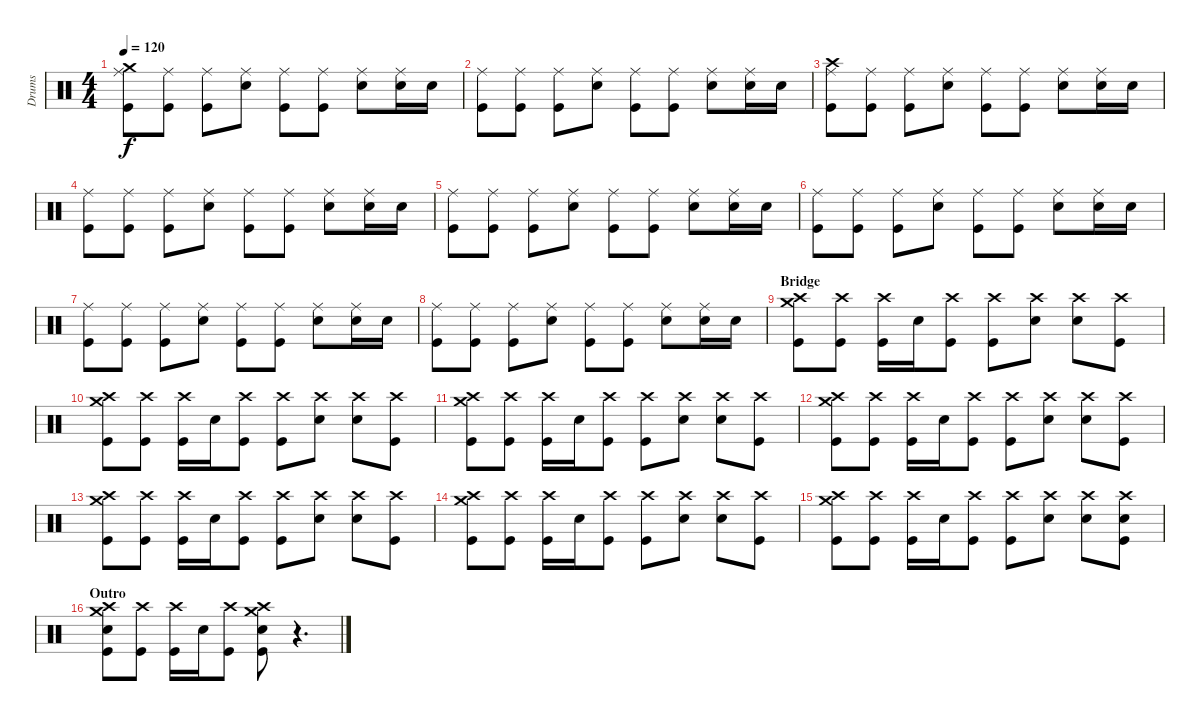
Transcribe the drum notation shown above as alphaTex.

\track ("Drums" "Drums") {instrument percussion}
\staff {score}
\articulation defaults
\ts (4 4)
\tempo 120
\clef neutral
\ks c
("Ride (middle)" "Crash medium (hit)" "Kick (hit)").8{dy f} ("Ride (middle)" "Kick (hit)").8 ("Ride (middle)" "Kick (hit)").8 ("Ride (middle)" "Electric Snare (hit)").8 ("Ride (middle)" "Kick (hit)").8 ("Ride (middle)" "Kick (hit)").8 ("Ride (middle)" "Electric Snare (hit)").8 ("Ride (middle)" "Electric Snare (hit)").16 "Electric Snare (hit)".16 |
("Ride (middle)" "Kick (hit)").8 ("Ride (middle)" "Kick (hit)").8 ("Ride (middle)" "Kick (hit)").8 ("Ride (middle)" "Electric Snare (hit)").8 ("Ride (middle)" "Kick (hit)").8 ("Ride (middle)" "Kick (hit)").8 ("Ride (middle)" "Electric Snare (hit)").8 ("Ride (middle)" "Electric Snare (hit)").16 "Electric Snare (hit)".16 |
("Ride (middle)" "Crash high (hit)" "Kick (hit)").8 ("Ride (middle)" "Kick (hit)").8 ("Ride (middle)" "Kick (hit)").8 ("Ride (middle)" "Electric Snare (hit)").8 ("Ride (middle)" "Kick (hit)").8 ("Ride (middle)" "Kick (hit)").8 ("Ride (middle)" "Electric Snare (hit)").8 ("Ride (middle)" "Electric Snare (hit)").16 "Electric Snare (hit)".16 |
("Ride (middle)" "Kick (hit)").8 ("Ride (middle)" "Kick (hit)").8 ("Ride (middle)" "Kick (hit)").8 ("Ride (middle)" "Electric Snare (hit)").8 ("Ride (middle)" "Kick (hit)").8 ("Ride (middle)" "Kick (hit)").8 ("Ride (middle)" "Electric Snare (hit)").8 ("Ride (middle)" "Electric Snare (hit)").16 "Electric Snare (hit)".16 |
("Ride (middle)" "Kick (hit)").8 ("Ride (middle)" "Kick (hit)").8 ("Ride (middle)" "Kick (hit)").8 ("Ride (middle)" "Electric Snare (hit)").8 ("Ride (middle)" "Kick (hit)").8 ("Ride (middle)" "Kick (hit)").8 ("Ride (middle)" "Electric Snare (hit)").8 ("Ride (middle)" "Electric Snare (hit)").16 "Electric Snare (hit)".16 |
("Ride (middle)" "Kick (hit)").8 ("Ride (middle)" "Kick (hit)").8 ("Ride (middle)" "Kick (hit)").8 ("Ride (middle)" "Electric Snare (hit)").8 ("Ride (middle)" "Kick (hit)").8 ("Ride (middle)" "Kick (hit)").8 ("Ride (middle)" "Electric Snare (hit)").8 ("Ride (middle)" "Electric Snare (hit)").16 "Electric Snare (hit)".16 |
("Ride (middle)" "Kick (hit)").8 ("Ride (middle)" "Kick (hit)").8 ("Ride (middle)" "Kick (hit)").8 ("Ride (middle)" "Electric Snare (hit)").8 ("Ride (middle)" "Kick (hit)").8 ("Ride (middle)" "Kick (hit)").8 ("Ride (middle)" "Electric Snare (hit)").8 ("Ride (middle)" "Electric Snare (hit)").16 "Electric Snare (hit)".16 |
("Ride (middle)" "Kick (hit)").8 ("Ride (middle)" "Kick (hit)").8 ("Ride (middle)" "Kick (hit)").8 ("Ride (middle)" "Electric Snare (hit)").8 ("Ride (middle)" "Kick (hit)").8 ("Ride (middle)" "Kick (hit)").8 ("Ride (middle)" "Electric Snare (hit)").8 ("Ride (middle)" "Electric Snare (hit)").16 "Electric Snare (hit)".16 |
\section ("" "Bridge")
("Crash high (hit)" "Crash medium (hit)" "Kick (hit)").8 ("Crash high (hit)" "Kick (hit)").8 ("Crash high (hit)" "Kick (hit)").16 "Electric Snare (hit)".16 ("Crash high (hit)" "Kick (hit)").8 ("Crash high (hit)" "Kick (hit)").8 ("Crash high (hit)" "Electric Snare (hit)").8 ("Crash high (hit)" "Electric Snare (hit)").8 ("Crash high (hit)" "Kick (hit)").8 |
("Crash high (hit)" "Crash medium (hit)" "Kick (hit)").8 ("Crash high (hit)" "Kick (hit)").8 ("Crash high (hit)" "Kick (hit)").16 "Electric Snare (hit)".16 ("Crash high (hit)" "Kick (hit)").8 ("Crash high (hit)" "Kick (hit)").8 ("Crash high (hit)" "Electric Snare (hit)").8 ("Crash high (hit)" "Electric Snare (hit)").8 ("Crash high (hit)" "Kick (hit)").8 |
("Crash high (hit)" "Crash medium (hit)" "Kick (hit)").8 ("Crash high (hit)" "Kick (hit)").8 ("Crash high (hit)" "Kick (hit)").16 "Electric Snare (hit)".16 ("Crash high (hit)" "Kick (hit)").8 ("Crash high (hit)" "Kick (hit)").8 ("Crash high (hit)" "Electric Snare (hit)").8 ("Crash high (hit)" "Electric Snare (hit)").8 ("Crash high (hit)" "Kick (hit)").8 |
("Crash high (hit)" "Crash medium (hit)" "Kick (hit)").8 ("Crash high (hit)" "Kick (hit)").8 ("Crash high (hit)" "Kick (hit)").16 "Electric Snare (hit)".16 ("Crash high (hit)" "Kick (hit)").8 ("Crash high (hit)" "Kick (hit)").8 ("Crash high (hit)" "Electric Snare (hit)").8 ("Crash high (hit)" "Electric Snare (hit)").8 ("Crash high (hit)" "Kick (hit)").8 |
("Crash high (hit)" "Crash medium (hit)" "Kick (hit)").8 ("Crash high (hit)" "Kick (hit)").8 ("Crash high (hit)" "Kick (hit)").16 "Electric Snare (hit)".16 ("Crash high (hit)" "Kick (hit)").8 ("Crash high (hit)" "Kick (hit)").8 ("Crash high (hit)" "Electric Snare (hit)").8 ("Crash high (hit)" "Electric Snare (hit)").8 ("Crash high (hit)" "Kick (hit)").8 |
("Crash high (hit)" "Crash medium (hit)" "Kick (hit)").8 ("Crash high (hit)" "Kick (hit)").8 ("Crash high (hit)" "Kick (hit)").16 "Electric Snare (hit)".16 ("Crash high (hit)" "Kick (hit)").8 ("Crash high (hit)" "Kick (hit)").8 ("Crash high (hit)" "Electric Snare (hit)").8 ("Crash high (hit)" "Electric Snare (hit)").8 ("Crash high (hit)" "Kick (hit)").8 |
("Crash high (hit)" "Crash medium (hit)" "Kick (hit)").8 ("Crash high (hit)" "Kick (hit)").8 ("Crash high (hit)" "Kick (hit)").16 "Electric Snare (hit)".16 ("Crash high (hit)" "Kick (hit)").8 ("Crash high (hit)" "Kick (hit)").8 ("Crash high (hit)" "Electric Snare (hit)").8 ("Crash high (hit)" "Electric Snare (hit)").8 ("Crash high (hit)" "Electric Snare (hit)" "Kick (hit)").8 |
\section ("" "Outro")
("Crash high (hit)" "Crash medium (hit)" "Electric Snare (hit)" "Kick (hit)").8 ("Crash high (hit)" "Kick (hit)").8 ("Crash high (hit)" "Kick (hit)").16 "Electric Snare (hit)".16 ("Crash high (hit)" "Kick (hit)").8 ("Crash high (hit)" "Crash medium (hit)" "Electric Snare (hit)" "Kick (hit)").8 r.4{d}
